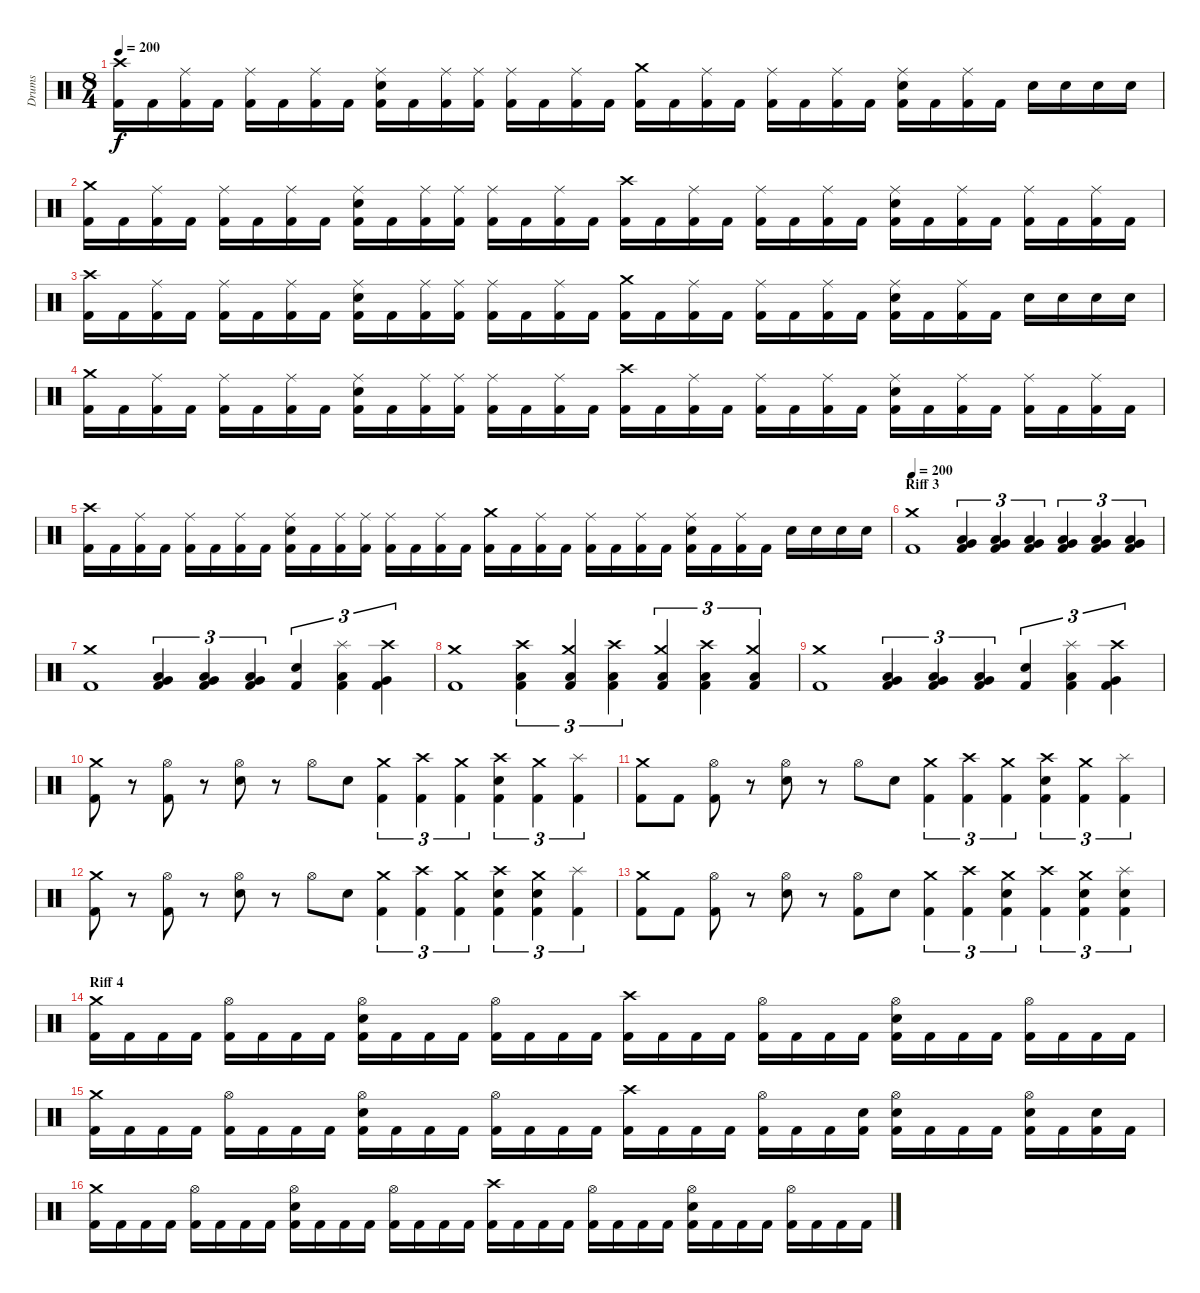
\track ("Drums" "Drums") {instrument percussion}
\staff {score}
\articulation defaults
\ts (8 4)
\tempo 200
\clef neutral
\ks c
("Crash high (hit)" "Kick (hit) 2").16{dy f} "Kick (hit) 2".16 ("Ride (middle)" "Kick (hit) 2").16 "Kick (hit) 2".16 ("Ride (middle)" "Kick (hit) 2").16 "Kick (hit) 2".16 ("Ride (middle)" "Kick (hit) 2").16 "Kick (hit) 2".16 ("Ride (middle)" "Electric Snare (hit)" "Kick (hit) 2").16 "Kick (hit) 2".16 ("Ride (middle)" "Kick (hit) 2").16 ("Ride (middle)" "Kick (hit) 2").16 ("Ride (middle)" "Kick (hit) 2").16 "Kick (hit) 2".16 ("Ride (middle)" "Kick (hit) 2").16 "Kick (hit) 2".16 ("Crash medium (hit)" "Kick (hit) 2").16 "Kick (hit) 2".16 ("Ride (middle)" "Kick (hit) 2").16 "Kick (hit) 2".16 ("Ride (middle)" "Kick (hit) 2").16 "Kick (hit) 2".16 ("Ride (middle)" "Kick (hit) 2").16 "Kick (hit) 2".16 ("Ride (middle)" "Electric Snare (hit)" "Kick (hit) 2").16 "Kick (hit) 2".16 ("Ride (middle)" "Kick (hit) 2").16 "Kick (hit) 2".16 "Electric Snare (hit)".16 "Electric Snare (hit)".16 "Electric Snare (hit)".16 "Electric Snare (hit)".16 |
("Crash medium (hit)" "Kick (hit) 2").16 "Kick (hit) 2".16 ("Ride (middle)" "Kick (hit) 2").16 "Kick (hit) 2".16 ("Ride (middle)" "Kick (hit) 2").16 "Kick (hit) 2".16 ("Ride (middle)" "Kick (hit) 2").16 "Kick (hit) 2".16 ("Ride (middle)" "Electric Snare (hit)" "Kick (hit) 2").16 "Kick (hit) 2".16 ("Ride (middle)" "Kick (hit) 2").16 ("Ride (middle)" "Kick (hit) 2").16 ("Ride (middle)" "Kick (hit) 2").16 "Kick (hit) 2".16 ("Ride (middle)" "Kick (hit) 2").16 "Kick (hit) 2".16 ("Crash high (hit)" "Kick (hit) 2").16 "Kick (hit) 2".16 ("Ride (middle)" "Kick (hit) 2").16 "Kick (hit) 2".16 ("Ride (middle)" "Kick (hit) 2").16 "Kick (hit) 2".16 ("Ride (middle)" "Kick (hit) 2").16 "Kick (hit) 2".16 ("Ride (middle)" "Electric Snare (hit)" "Kick (hit) 2").16 "Kick (hit) 2".16 ("Ride (middle)" "Kick (hit) 2").16 "Kick (hit) 2".16 ("Ride (middle)" "Kick (hit) 2").16 "Kick (hit) 2".16 ("Ride (middle)" "Kick (hit) 2").16 "Kick (hit) 2".16 |
("Crash high (hit)" "Kick (hit) 2").16 "Kick (hit) 2".16 ("Ride (middle)" "Kick (hit) 2").16 "Kick (hit) 2".16 ("Ride (middle)" "Kick (hit) 2").16 "Kick (hit) 2".16 ("Ride (middle)" "Kick (hit) 2").16 "Kick (hit) 2".16 ("Ride (middle)" "Electric Snare (hit)" "Kick (hit) 2").16 "Kick (hit) 2".16 ("Ride (middle)" "Kick (hit) 2").16 ("Ride (middle)" "Kick (hit) 2").16 ("Ride (middle)" "Kick (hit) 2").16 "Kick (hit) 2".16 ("Ride (middle)" "Kick (hit) 2").16 "Kick (hit) 2".16 ("Crash medium (hit)" "Kick (hit) 2").16 "Kick (hit) 2".16 ("Ride (middle)" "Kick (hit) 2").16 "Kick (hit) 2".16 ("Ride (middle)" "Kick (hit) 2").16 "Kick (hit) 2".16 ("Ride (middle)" "Kick (hit) 2").16 "Kick (hit) 2".16 ("Ride (middle)" "Electric Snare (hit)" "Kick (hit) 2").16 "Kick (hit) 2".16 ("Ride (middle)" "Kick (hit) 2").16 "Kick (hit) 2".16 "Electric Snare (hit)".16 "Electric Snare (hit)".16 "Electric Snare (hit)".16 "Electric Snare (hit)".16 |
("Crash medium (hit)" "Kick (hit) 2").16 "Kick (hit) 2".16 ("Ride (middle)" "Kick (hit) 2").16 "Kick (hit) 2".16 ("Ride (middle)" "Kick (hit) 2").16 "Kick (hit) 2".16 ("Ride (middle)" "Kick (hit) 2").16 "Kick (hit) 2".16 ("Ride (middle)" "Electric Snare (hit)" "Kick (hit) 2").16 "Kick (hit) 2".16 ("Ride (middle)" "Kick (hit) 2").16 ("Ride (middle)" "Kick (hit) 2").16 ("Ride (middle)" "Kick (hit) 2").16 "Kick (hit) 2".16 ("Ride (middle)" "Kick (hit) 2").16 "Kick (hit) 2".16 ("Crash high (hit)" "Kick (hit) 2").16 "Kick (hit) 2".16 ("Ride (middle)" "Kick (hit) 2").16 "Kick (hit) 2".16 ("Ride (middle)" "Kick (hit) 2").16 "Kick (hit) 2".16 ("Ride (middle)" "Kick (hit) 2").16 "Kick (hit) 2".16 ("Ride (middle)" "Electric Snare (hit)" "Kick (hit) 2").16 "Kick (hit) 2".16 ("Ride (middle)" "Kick (hit) 2").16 "Kick (hit) 2".16 ("Ride (middle)" "Kick (hit) 2").16 "Kick (hit) 2".16 ("Ride (middle)" "Kick (hit) 2").16 "Kick (hit) 2".16 |
("Crash high (hit)" "Kick (hit) 2").16 "Kick (hit) 2".16 ("Ride (middle)" "Kick (hit) 2").16 "Kick (hit) 2".16 ("Ride (middle)" "Kick (hit) 2").16 "Kick (hit) 2".16 ("Ride (middle)" "Kick (hit) 2").16 "Kick (hit) 2".16 ("Ride (middle)" "Electric Snare (hit)" "Kick (hit) 2").16 "Kick (hit) 2".16 ("Ride (middle)" "Kick (hit) 2").16 ("Ride (middle)" "Kick (hit) 2").16 ("Ride (middle)" "Kick (hit) 2").16 "Kick (hit) 2".16 ("Ride (middle)" "Kick (hit) 2").16 "Kick (hit) 2".16 ("Crash medium (hit)" "Kick (hit) 2").16 "Kick (hit) 2".16 ("Ride (middle)" "Kick (hit) 2").16 "Kick (hit) 2".16 ("Ride (middle)" "Kick (hit) 2").16 "Kick (hit) 2".16 ("Ride (middle)" "Kick (hit) 2").16 "Kick (hit) 2".16 ("Ride (middle)" "Electric Snare (hit)" "Kick (hit) 2").16 "Kick (hit) 2".16 ("Ride (middle)" "Kick (hit) 2").16 "Kick (hit) 2".16 "Electric Snare (hit)".16 "Electric Snare (hit)".16 "Electric Snare (hit)".16 "Electric Snare (hit)".16 |
\section ("" "Riff 3")
\tempo 200
("Crash medium (hit)" "Kick (hit) 2").1 ("Low Tom (hit)" "Very Low Tom (hit)" "Kick (hit) 2").4{tu (3 2)} ("Low Tom (hit)" "Very Low Tom (hit)" "Kick (hit) 2").4{tu (3 2)} ("Low Tom (hit)" "Very Low Tom (hit)" "Kick (hit) 2").4{tu (3 2)} ("Low Floor Tom (hit)" "Very Low Tom (hit)" "Kick (hit) 2").4{tu (3 2)} ("Low Floor Tom (hit)" "Very Low Tom (hit)" "Kick (hit) 2").4{tu (3 2)} ("Low Floor Tom (hit)" "Very Low Tom (hit)" "Kick (hit) 2").4{tu (3 2)} |
("Crash medium (hit)" "Kick (hit) 2").1 ("Low Tom (hit)" "Very Low Tom (hit)" "Kick (hit) 2").4{tu (3 2)} ("Low Tom (hit)" "Very Low Tom (hit)" "Kick (hit) 2").4{tu (3 2)} ("Low Tom (hit)" "Very Low Tom (hit)" "Kick (hit) 2").4{tu (3 2)} ("Electric Snare (hit)" "Kick (hit) 2").4{tu (3 2)} ("Splash (hit)" "Low Floor Tom (hit)" "Kick (hit) 2").4{tu (3 2)} ("Crash high (hit)" "Very Low Tom (hit)" "Kick (hit) 2").4{tu (3 2)} |
("Crash medium (hit)" "Kick (hit) 2").1 ("Crash high (hit)" "Low Tom (hit)" "Kick (hit) 2").4{tu (3 2)} ("Crash medium (hit)" "Low Tom (hit)" "Kick (hit) 2").4{tu (3 2)} ("Crash high (hit)" "Low Tom (hit)" "Kick (hit) 2").4{tu (3 2)} ("Crash medium (hit)" "Low Tom (hit)" "Kick (hit) 2").4{tu (3 2)} ("Crash high (hit)" "Low Tom (hit)" "Kick (hit) 2").4{tu (3 2)} ("Crash medium (hit)" "Low Tom (hit)" "Kick (hit) 2").4{tu (3 2)} |
("Crash medium (hit)" "Kick (hit) 2").1 ("Low Tom (hit)" "Very Low Tom (hit)" "Kick (hit) 2").4{tu (3 2)} ("Low Tom (hit)" "Very Low Tom (hit)" "Kick (hit) 2").4{tu (3 2)} ("Low Tom (hit)" "Very Low Tom (hit)" "Kick (hit) 2").4{tu (3 2)} ("Electric Snare (hit)" "Kick (hit) 2").4{tu (3 2)} ("Splash (hit)" "Low Floor Tom (hit)" "Kick (hit) 2").4{tu (3 2)} ("Crash high (hit)" "Very Low Tom (hit)" "Kick (hit) 2").4{tu (3 2)} |
("Crash medium (hit)" "Kick (hit) 2").8 r.8 ("Hi-Hat (open)" "Kick (hit) 2").8 r.8 ("Hi-Hat (open)" "Electric Snare (hit)").8 r.8 "Hi-Hat (open)".8 "Electric Snare (hit)".8 ("Crash medium (hit)" "Kick (hit) 2").4{tu (3 2)} ("Crash high (hit)" "Kick (hit) 2").4{tu (3 2)} ("Crash medium (hit)" "Kick (hit) 2").4{tu (3 2)} ("Crash high (hit)" "Electric Snare (hit)" "Kick (hit) 2").4{tu (3 2)} ("Crash medium (hit)" "Kick (hit) 2").4{tu (3 2)} ("Splash (hit)" "Kick (hit) 2").4{tu (3 2)} |
("Crash medium (hit)" "Kick (hit) 2").8 "Kick (hit) 2".8 ("Hi-Hat (open)" "Kick (hit) 2").8 r.8 ("Hi-Hat (open)" "Electric Snare (hit)").8 r.8 "Hi-Hat (open)".8 "Electric Snare (hit)".8 ("Crash medium (hit)" "Kick (hit) 2").4{tu (3 2)} ("Crash high (hit)" "Kick (hit) 2").4{tu (3 2)} ("Crash medium (hit)" "Kick (hit) 2").4{tu (3 2)} ("Crash high (hit)" "Electric Snare (hit)" "Kick (hit) 2").4{tu (3 2)} ("Crash medium (hit)" "Kick (hit) 2").4{tu (3 2)} ("Splash (hit)" "Kick (hit) 2").4{tu (3 2)} |
("Crash medium (hit)" "Kick (hit) 2").8 r.8 ("Hi-Hat (open)" "Kick (hit) 2").8 r.8 ("Hi-Hat (open)" "Electric Snare (hit)").8 r.8 "Hi-Hat (open)".8 "Electric Snare (hit)".8 ("Crash medium (hit)" "Kick (hit) 2").4{tu (3 2)} ("Crash high (hit)" "Kick (hit) 2").4{tu (3 2)} ("Crash medium (hit)" "Kick (hit) 2").4{tu (3 2)} ("Crash high (hit)" "Electric Snare (hit)" "Kick (hit) 2").4{tu (3 2)} ("Crash medium (hit)" "Electric Snare (hit)" "Kick (hit) 2").4{tu (3 2)} ("Splash (hit)" "Kick (hit) 2").4{tu (3 2)} |
("Crash medium (hit)" "Kick (hit) 2").8 "Kick (hit) 2".8 ("Hi-Hat (open)" "Kick (hit) 2").8 r.8 ("Hi-Hat (open)" "Electric Snare (hit)").8 r.8 ("Hi-Hat (open)" "Kick (hit) 2").8 "Electric Snare (hit)".8 ("Crash medium (hit)" "Kick (hit) 2").4{tu (3 2)} ("Crash high (hit)" "Kick (hit) 2").4{tu (3 2)} ("Crash medium (hit)" "Electric Snare (hit)" "Kick (hit) 2").4{tu (3 2)} ("Crash high (hit)" "Kick (hit) 2").4{tu (3 2)} ("Crash medium (hit)" "Electric Snare (hit)" "Kick (hit) 2").4{tu (3 2)} ("Splash (hit)" "Electric Snare (hit)" "Kick (hit) 2").4{tu (3 2)} |
\section ("" "Riff 4")
("Crash medium (hit)" "Kick (hit) 2").16 "Kick (hit) 2".16 "Kick (hit) 2".16 "Kick (hit) 2".16 ("Hi-Hat (open)" "Kick (hit) 2").16 "Kick (hit) 2".16 "Kick (hit) 2".16 "Kick (hit) 2".16 ("Hi-Hat (open)" "Electric Snare (hit)" "Kick (hit) 2").16 "Kick (hit) 2".16 "Kick (hit) 2".16 "Kick (hit) 2".16 ("Hi-Hat (open)" "Kick (hit) 2").16 "Kick (hit) 2".16 "Kick (hit) 2".16 "Kick (hit) 2".16 ("Crash high (hit)" "Kick (hit) 2").16 "Kick (hit) 2".16 "Kick (hit) 2".16 "Kick (hit) 2".16 ("Hi-Hat (open)" "Kick (hit) 2").16 "Kick (hit) 2".16 "Kick (hit) 2".16 "Kick (hit) 2".16 ("Hi-Hat (open)" "Electric Snare (hit)" "Kick (hit) 2").16 "Kick (hit) 2".16 "Kick (hit) 2".16 "Kick (hit) 2".16 ("Hi-Hat (open)" "Kick (hit) 2").16 "Kick (hit) 2".16 "Kick (hit) 2".16 "Kick (hit) 2".16 |
("Crash medium (hit)" "Kick (hit) 2").16 "Kick (hit) 2".16 "Kick (hit) 2".16 "Kick (hit) 2".16 ("Hi-Hat (open)" "Kick (hit) 2").16 "Kick (hit) 2".16 "Kick (hit) 2".16 "Kick (hit) 2".16 ("Hi-Hat (open)" "Electric Snare (hit)" "Kick (hit) 2").16 "Kick (hit) 2".16 "Kick (hit) 2".16 "Kick (hit) 2".16 ("Hi-Hat (open)" "Kick (hit) 2").16 "Kick (hit) 2".16 "Kick (hit) 2".16 "Kick (hit) 2".16 ("Crash high (hit)" "Kick (hit) 2").16 "Kick (hit) 2".16 "Kick (hit) 2".16 "Kick (hit) 2".16 ("Hi-Hat (open)" "Kick (hit) 2").16 "Kick (hit) 2".16 "Kick (hit) 2".16 ("Electric Snare (hit)" "Kick (hit) 2").16 ("Hi-Hat (open)" "Electric Snare (hit)" "Kick (hit) 2").16 "Kick (hit) 2".16 "Kick (hit) 2".16 "Kick (hit) 2".16 ("Hi-Hat (open)" "Electric Snare (hit)" "Kick (hit) 2").16 "Kick (hit) 2".16 ("Electric Snare (hit)" "Kick (hit) 2").16 "Kick (hit) 2".16 |
("Crash medium (hit)" "Kick (hit) 2").16 "Kick (hit) 2".16 "Kick (hit) 2".16 "Kick (hit) 2".16 ("Hi-Hat (open)" "Kick (hit) 2").16 "Kick (hit) 2".16 "Kick (hit) 2".16 "Kick (hit) 2".16 ("Hi-Hat (open)" "Electric Snare (hit)" "Kick (hit) 2").16 "Kick (hit) 2".16 "Kick (hit) 2".16 "Kick (hit) 2".16 ("Hi-Hat (open)" "Kick (hit) 2").16 "Kick (hit) 2".16 "Kick (hit) 2".16 "Kick (hit) 2".16 ("Crash high (hit)" "Kick (hit) 2").16 "Kick (hit) 2".16 "Kick (hit) 2".16 "Kick (hit) 2".16 ("Hi-Hat (open)" "Kick (hit) 2").16 "Kick (hit) 2".16 "Kick (hit) 2".16 "Kick (hit) 2".16 ("Hi-Hat (open)" "Electric Snare (hit)" "Kick (hit) 2").16 "Kick (hit) 2".16 "Kick (hit) 2".16 "Kick (hit) 2".16 ("Hi-Hat (open)" "Kick (hit) 2").16 "Kick (hit) 2".16 "Kick (hit) 2".16 "Kick (hit) 2".16
